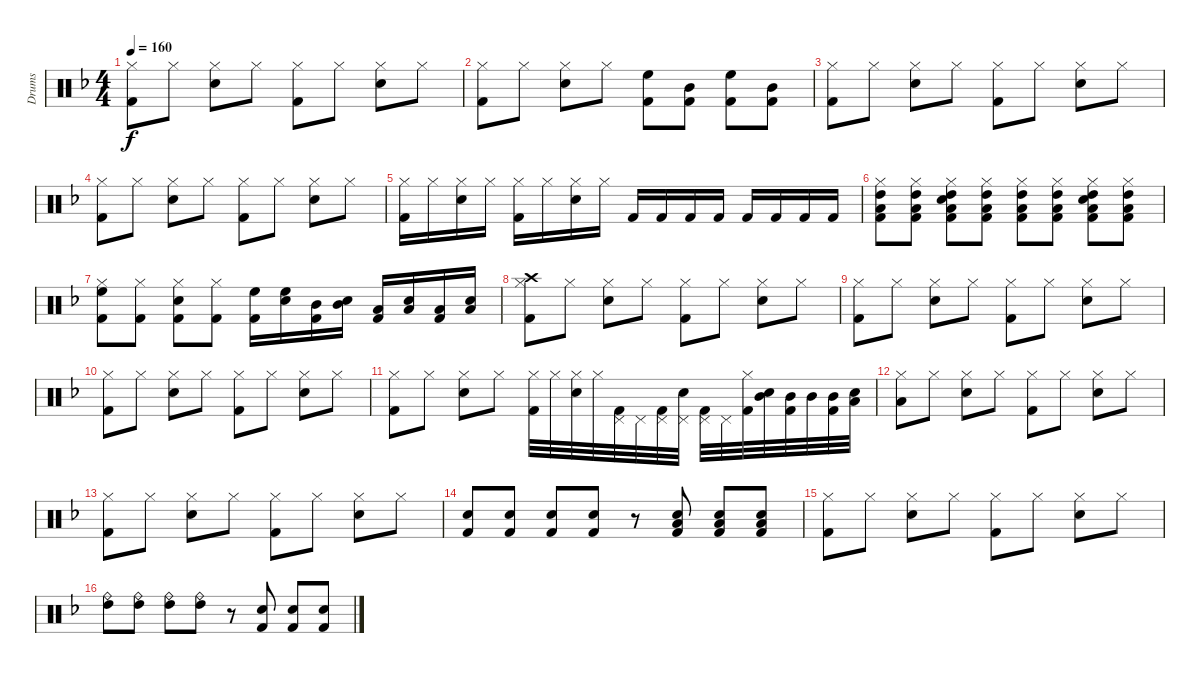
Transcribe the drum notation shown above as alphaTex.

\track ("Drums" "Drums") {instrument percussion}
\staff {score}
\articulation defaults
\ts (4 4)
\tempo 160
\clef neutral
\ks dminor
("Hi-Hat (closed)" "Kick (hit) 2").8{dy f} "Hi-Hat (closed)".8 ("Hi-Hat (closed)" "Electric Snare (hit)").8 "Hi-Hat (closed)".8 ("Hi-Hat (closed)" "Kick (hit) 2").8 "Hi-Hat (closed)".8 ("Hi-Hat (closed)" "Electric Snare (hit)").8 "Hi-Hat (closed)".8 |
("Hi-Hat (closed)" "Kick (hit) 2").8 "Hi-Hat (closed)".8 ("Hi-Hat (closed)" "Electric Snare (hit)").8 "Hi-Hat (closed)".8 ("High Floor Tom (hit)" "Kick (hit) 2").8 ("Mid Tom (hit)" "Kick (hit) 2").8 ("High Floor Tom (hit)" "Kick (hit) 2").8 ("Mid Tom (hit)" "Kick (hit) 2").8 |
("Hi-Hat (closed)" "Kick (hit) 2").8 "Hi-Hat (closed)".8 ("Hi-Hat (closed)" "Electric Snare (hit)").8 "Hi-Hat (closed)".8 ("Hi-Hat (closed)" "Kick (hit) 2").8 "Hi-Hat (closed)".8 ("Hi-Hat (closed)" "Electric Snare (hit)").8 "Hi-Hat (closed)".8 |
("Hi-Hat (closed)" "Kick (hit) 2").8 "Hi-Hat (closed)".8 ("Hi-Hat (closed)" "Electric Snare (hit)").8 "Hi-Hat (closed)".8 ("Hi-Hat (closed)" "Kick (hit) 2").8 "Hi-Hat (closed)".8 ("Hi-Hat (closed)" "Electric Snare (hit)").8 "Hi-Hat (closed)".8 |
("Hi-Hat (closed)" "Kick (hit) 2").16 "Hi-Hat (closed)".16 ("Hi-Hat (closed)" "Electric Snare (hit)").16 "Hi-Hat (closed)".16 ("Hi-Hat (closed)" "Kick (hit) 2").16 "Hi-Hat (closed)".16 ("Hi-Hat (closed)" "Electric Snare (hit)").16 "Hi-Hat (closed)".16 "Kick (hit) 2".16 "Kick (hit) 2".16 "Kick (hit) 2".16 "Kick (hit) 2".16 "Kick (hit) 2".16 "Kick (hit) 2".16 "Kick (hit) 2".16 "Kick (hit) 2".16 |
("Hi-Hat (closed)" "High Tom (hit)" "Kick (hit) 2" "Low Tom (hit)").8 ("Hi-Hat (closed)" "High Tom (hit)" "Kick (hit) 2" "Low Tom (hit)").8 ("Hi-Hat (closed)" "Electric Snare (hit)" "High Tom (hit)" "Kick (hit) 2" "Low Tom (hit)").8 ("Hi-Hat (closed)" "High Tom (hit)" "Kick (hit) 2" "Low Tom (hit)").8 ("Hi-Hat (closed)" "High Tom (hit)" "Kick (hit) 2" "Low Tom (hit)").8 ("Hi-Hat (closed)" "High Tom (hit)" "Kick (hit) 2" "Low Tom (hit)").8 ("Hi-Hat (closed)" "Electric Snare (hit)" "High Tom (hit)" "Kick (hit) 2" "Low Tom (hit)").8 ("Hi-Hat (closed)" "High Tom (hit)" "Kick (hit) 2" "Low Tom (hit)").8 |
("Hi-Hat (closed)" "High Floor Tom (hit)" "Kick (hit) 2").8 ("Hi-Hat (closed)" "Kick (hit) 2").8 ("Hi-Hat (closed)" "Electric Snare (hit)" "Kick (hit) 2").8 ("Hi-Hat (closed)" "Kick (hit) 2").8 ("High Floor Tom (hit)" "Kick (hit) 2").16 ("High Floor Tom (hit)" "Snare (hit) 2").16 ("Mid Tom (hit)" "Kick (hit) 2").16 ("Mid Tom (hit)" "Snare (hit) 2").16 ("Low Tom (hit)" "Kick (hit) 2").16 ("Low Tom (hit)" "Snare (hit) 2").16 ("Low Floor Tom (hit)" "Kick (hit) 2").16 ("Low Floor Tom (hit)" "Snare (hit) 2").16 |
("Hi-Hat (closed)" "Crash high (hit)" "Kick (hit) 2").8 "Hi-Hat (closed)".8 ("Hi-Hat (closed)" "Electric Snare (hit)").8 "Hi-Hat (closed)".8 ("Hi-Hat (closed)" "Kick (hit) 2").8 "Hi-Hat (closed)".8 ("Hi-Hat (closed)" "Electric Snare (hit)").8 "Hi-Hat (closed)".8 |
("Hi-Hat (closed)" "Kick (hit) 2").8 "Hi-Hat (closed)".8 ("Hi-Hat (closed)" "Electric Snare (hit)").8 "Hi-Hat (closed)".8 ("Hi-Hat (closed)" "Kick (hit) 2").8 "Hi-Hat (closed)".8 ("Hi-Hat (closed)" "Electric Snare (hit)").8 "Hi-Hat (closed)".8 |
("Hi-Hat (closed)" "Kick (hit) 2").8 "Hi-Hat (closed)".8 ("Hi-Hat (closed)" "Electric Snare (hit)").8 "Hi-Hat (closed)".8 ("Hi-Hat (closed)" "Kick (hit) 2").8 "Hi-Hat (closed)".8 ("Hi-Hat (closed)" "Electric Snare (hit)").8 "Hi-Hat (closed)".8 |
("Hi-Hat (closed)" "Kick (hit) 2").8 "Hi-Hat (closed)".8 ("Hi-Hat (closed)" "Electric Snare (hit)").8 "Hi-Hat (closed)".8 ("Hi-Hat (closed)" "Kick (hit) 2").32 "Hi-Hat (closed)".32 ("Hi-Hat (closed)" "Electric Snare (hit)").32 "Hi-Hat (closed)".32 ("Pedal Hi-Hat (hit)" "Kick (hit) 2").32 "Pedal Hi-Hat (hit)".32 ("Pedal Hi-Hat (hit)" "Kick (hit) 2").32 ("Snare (hit) 2" "Pedal Hi-Hat (hit)").32 ("Pedal Hi-Hat (hit)" "Kick (hit) 2").32 "Pedal Hi-Hat (hit)".32 ("Hi-Hat (closed)" "Kick (hit) 2").32 ("Snare (hit) 2" "Mid Tom (hit)").32 ("Mid Tom (hit)" "Kick (hit) 2").32 "Mid Tom (hit)".32 ("Mid Tom (hit)" "Kick (hit) 2").32 ("Snare (hit) 2" "Low Tom (hit)").32 |
("Hi-Hat (closed)" "Low Floor Tom (hit)").8 "Hi-Hat (closed)".8 ("Hi-Hat (closed)" "Electric Snare (hit)").8 "Hi-Hat (closed)".8 ("Hi-Hat (closed)" "Kick (hit) 2").8 "Hi-Hat (closed)".8 ("Hi-Hat (closed)" "Electric Snare (hit)").8 "Hi-Hat (closed)".8 |
("Hi-Hat (closed)" "Kick (hit) 2").8 "Hi-Hat (closed)".8 ("Hi-Hat (closed)" "Electric Snare (hit)").8 "Hi-Hat (closed)".8 ("Hi-Hat (closed)" "Kick (hit) 2").8 "Hi-Hat (closed)".8 ("Hi-Hat (closed)" "Electric Snare (hit)").8 "Hi-Hat (closed)".8 |
("Snare (hit) 2" "Kick (hit) 2").8 ("Snare (hit) 2" "Kick (hit) 2").8 ("Snare (hit) 2" "Kick (hit) 2").8 ("Snare (hit) 2" "Kick (hit) 2").8 r.8 ("Low Tom (hit)" "Kick (hit) 2" "Snare (hit) 2").8 ("Low Tom (hit)" "Kick (hit) 2" "Snare (hit) 2").8 ("Low Tom (hit)" "Kick (hit) 2" "Snare (hit) 2").8 |
("Hi-Hat (closed)" "Kick (hit) 2").8 "Hi-Hat (closed)".8 ("Hi-Hat (closed)" "Electric Snare (hit)").8 "Hi-Hat (closed)".8 ("Hi-Hat (closed)" "Kick (hit) 2").8 "Hi-Hat (closed)".8 ("Hi-Hat (closed)" "Electric Snare (hit)").8 "Hi-Hat (closed)".8 |
("Ride (bell)" "High Tom (hit)").8 ("Ride (bell)" "High Tom (hit)").8 ("Ride (bell)" "High Tom (hit)").8 ("Ride (bell)" "High Tom (hit)").8 r.8 ("Kick (hit) 2" "Snare (hit) 2").8 ("Kick (hit) 2" "Snare (hit) 2").8 ("Kick (hit) 2" "Snare (hit) 2").8
